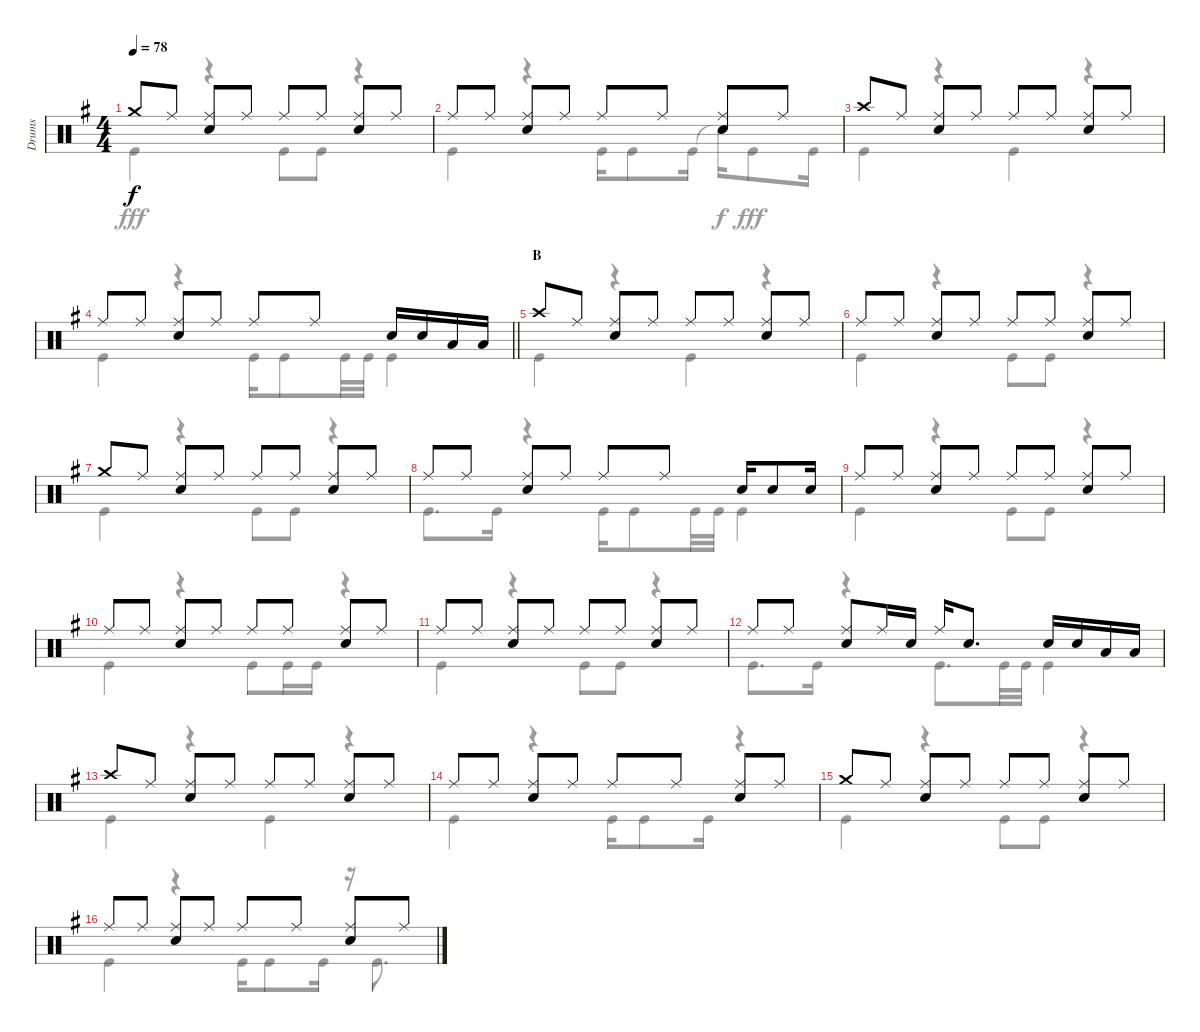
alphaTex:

\track ("Drums" "Drums") {instrument percussion}
\staff {score}
\articulation defaults
\voice
\ts (4 4)
\tempo 78
\clef neutral
\ks g "Crash medium (hit)".8{dy f} "Ride (middle)".8
("Ride (middle)" "Snare (hit) 2").8 "Ride (middle)".8 "Ride (middle)".8 "Ride (middle)".8 ("Ride (middle)" "Snare (hit) 2").8 "Ride (middle)".8 |
"Ride (middle)".8 "Ride (middle)".8 ("Ride (middle)" "Snare (hit) 2").8 "Ride (middle)".8 "Ride (middle)".8 "Ride (middle)".8 ("Ride (middle)" "Snare (hit) 2").8 "Ride (middle)".8 |
"Crash high (hit)".8 "Ride (middle)".8 ("Ride (middle)" "Snare (hit) 2").8 "Ride (middle)".8 "Ride (middle)".8 "Ride (middle)".8 ("Ride (middle)" "Snare (hit) 2").8 "Ride (middle)".8 |
\barLineRight lightlight "Ride (middle)".8 "Ride (middle)".8
("Ride (middle)" "Snare (hit) 2").8 "Ride (middle)".8 "Ride (middle)".8 "Ride (middle)".8 "Snare (hit) 2".16 "Snare (hit) 2".16 "Low Tom (hit)".16 "Low Tom (hit)".16 |
\section ("" "B")
"Crash high (hit)".8 "Ride (middle)".8 ("Ride (middle)" "Snare (hit) 2").8 "Ride (middle)".8 "Ride (middle)".8 "Ride (middle)".8 ("Ride (middle)" "Snare (hit) 2").8 "Ride (middle)".8 |
"Ride (middle)".8 "Ride (middle)".8 ("Ride (middle)" "Snare (hit) 2").8 "Ride (middle)".8 "Ride (middle)".8 "Ride (middle)".8 ("Ride (middle)" "Snare (hit) 2").8 "Ride (middle)".8 |
"Crash medium (hit)".8 "Ride (middle)".8 ("Ride (middle)" "Snare (hit) 2").8 "Ride (middle)".8 "Ride (middle)".8 "Ride (middle)".8 ("Ride (middle)" "Snare (hit) 2").8 "Ride (middle)".8 |
"Ride (middle)".8 "Ride (middle)".8 ("Ride (middle)" "Snare (hit) 2").8 "Ride (middle)".8 "Ride (middle)".8 "Ride (middle)".8 "Snare (hit) 2".16 "Snare (hit) 2".8 "Snare (hit) 2".16 |
"Ride (middle)".8 "Ride (middle)".8 ("Ride (middle)" "Snare (hit) 2").8 "Ride (middle)".8 "Ride (middle)".8 "Ride (middle)".8 ("Ride (middle)" "Snare (hit) 2").8 "Ride (middle)".8 |
"Ride (middle)".8 "Ride (middle)".8 ("Ride (middle)" "Snare (hit) 2").8 "Ride (middle)".8 "Ride (middle)".8 "Ride (middle)".8 ("Ride (middle)" "Snare (hit) 2").8 "Ride (middle)".8 |
"Ride (middle)".8 "Ride (middle)".8 ("Ride (middle)" "Snare (hit) 2").8 "Ride (middle)".8 "Ride (middle)".8 "Ride (middle)".8 ("Ride (middle)" "Snare (hit) 2").8 "Ride (middle)".8 |
"Ride (middle)".8 "Ride (middle)".8 ("Ride (middle)" "Snare (hit) 2").8 "Ride (middle)".16 "Snare (hit) 2".16 "Ride (middle)".16 "Snare (hit) 2".8{d} "Snare (hit) 2".16 "Snare (hit) 2".16 "Low Tom (hit)".16 "Low Tom (hit)".16 |
"Crash high (hit)".8 "Ride (middle)".8 ("Ride (middle)" "Snare (hit) 2").8 "Ride (middle)".8 "Ride (middle)".8 "Ride (middle)".8 ("Ride (middle)" "Snare (hit) 2").8 "Ride (middle)".8 |
"Ride (middle)".8 "Ride (middle)".8 ("Ride (middle)" "Snare (hit) 2").8 "Ride (middle)".8 "Ride (middle)".8 "Ride (middle)".8 ("Ride (middle)" "Snare (hit) 2").8 "Ride (middle)".8 |
"Crash medium (hit)".8 "Ride (middle)".8 ("Ride (middle)" "Snare (hit) 2").8 "Ride (middle)".8 "Ride (middle)".8 "Ride (middle)".8 ("Ride (middle)" "Snare (hit) 2").8 "Ride (middle)".8 |
"Ride (middle)".8 "Ride (middle)".8 ("Ride (middle)" "Snare (hit) 2").8 "Ride (middle)".8 "Ride (middle)".8 "Ride (middle)".8 ("Ride (middle)" "Snare (hit) 2").8 "Ride (middle)".8
\voice
\clef neutral
\ottava regular
\simile none
\ks g "Kick (hit)".4{dy fff}
r.4 "Kick (hit)".8 "Kick (hit)".8 r.4 |
"Kick (hit)".4 r.4 "Kick (hit)".16 "Kick (hit)".8 "Kick (hit)".16 "Snare (hit)"{t}.16{dy f} "Kick (hit)".8{dy fff} "Kick (hit)".16 |
"Kick (hit)".4 r.4 "Kick (hit)".4 r.4 |
\barLineRight lightlight "Kick (hit)".4
r.4 "Kick (hit)".16 "Kick (hit)".8 "Kick (hit)".32 "Kick (hit)".32 "Kick (hit)".4 |
"Kick (hit)".4 r.4 "Kick (hit)".4 r.4 |
"Kick (hit)".4 r.4 "Kick (hit)".8 "Kick (hit)".8 r.4 |
"Kick (hit)".4 r.4 "Kick (hit)".8 "Kick (hit)".8 r.4 |
"Kick (hit)".8{d} "Kick (hit)".16 r.4 "Kick (hit)".16 "Kick (hit)".8 "Kick (hit)".32 "Kick (hit)".32 "Kick (hit)".4 |
"Kick (hit)".4 r.4 "Kick (hit)".8 "Kick (hit)".8 r.4 |
"Kick (hit)".4 r.4 "Kick (hit)".8 "Kick (hit)".16 "Kick (hit)".16 r.4 |
"Kick (hit)".4 r.4 "Kick (hit)".8 "Kick (hit)".8 r.4 |
"Kick (hit)".8{d} "Kick (hit)".16 r.4 "Kick (hit)".8{d} "Kick (hit)".32 "Kick (hit)".32 "Kick (hit)".4 |
"Kick (hit)".4 r.4 "Kick (hit)".4 r.4 |
"Kick (hit)".4 r.4 "Kick (hit)".16 "Kick (hit)".8 "Kick (hit)".16 r.4 |
"Kick (hit)".4 r.4 "Kick (hit)".8 "Kick (hit)".8 r.4 |
"Kick (hit)".4 r.4 "Kick (hit)".16 "Kick (hit)".8 "Kick (hit)".16 r.16 "Kick (hit)".8{d}
